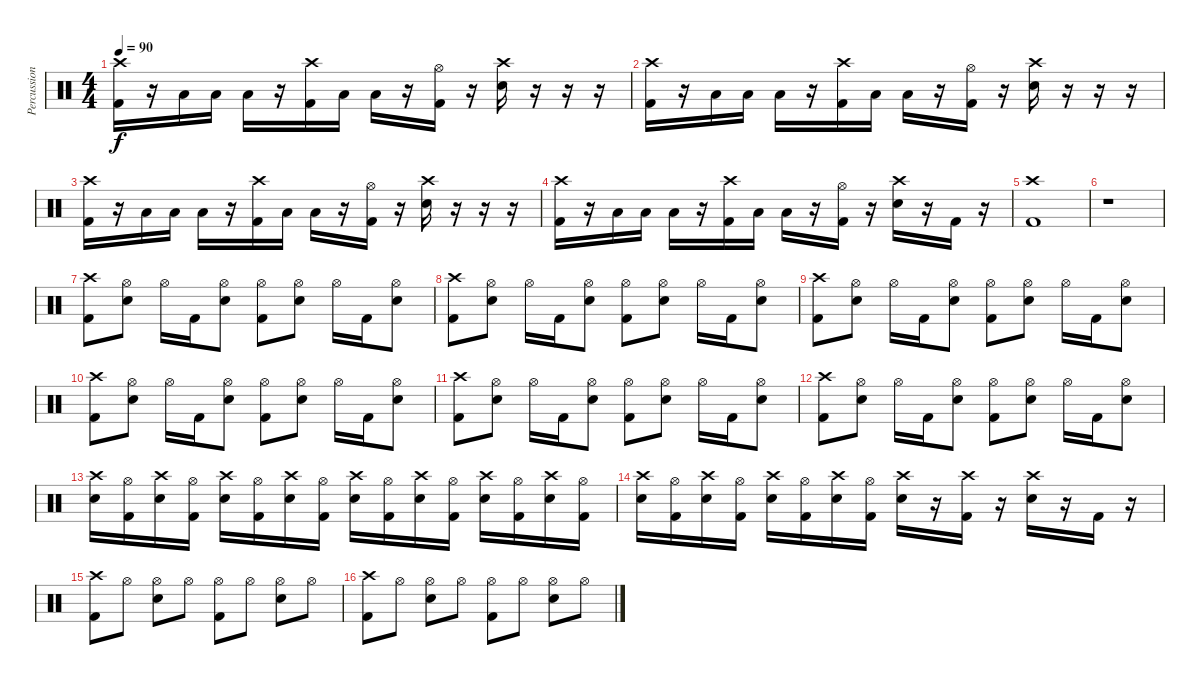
\track ("Percussion" "Percussion") {instrument percussion}
\staff {score}
\articulation defaults
\ts (4 4)
\tempo 90
\clef neutral
\ks c
("Crash high (hit)" "Kick (hit) 2").16{dy f} r.16 "Low Floor Tom (hit)".16 "Low Floor Tom (hit)".16 "Low Floor Tom (hit)".16 r.16 ("Crash high (hit)" "Kick (hit) 2").16 "Low Floor Tom (hit)".16 "Low Floor Tom (hit)".16 r.16 ("Hi-Hat (open)" "Kick (hit) 2").16 r.16 ("Crash high (hit)" "Snare (hit) 2").16 r.16 r.16 r.16 |
("Crash high (hit)" "Kick (hit) 2").16 r.16 "Low Floor Tom (hit)".16 "Low Floor Tom (hit)".16 "Low Floor Tom (hit)".16 r.16 ("Crash high (hit)" "Kick (hit) 2").16 "Low Floor Tom (hit)".16 "Low Floor Tom (hit)".16 r.16 ("Hi-Hat (open)" "Kick (hit) 2").16 r.16 ("Crash high (hit)" "Snare (hit) 2").16 r.16 r.16 r.16 |
("Crash high (hit)" "Kick (hit) 2").16 r.16 "Low Floor Tom (hit)".16 "Low Floor Tom (hit)".16 "Low Floor Tom (hit)".16 r.16 ("Crash high (hit)" "Kick (hit) 2").16 "Low Floor Tom (hit)".16 "Low Floor Tom (hit)".16 r.16 ("Hi-Hat (open)" "Kick (hit) 2").16 r.16 ("Crash high (hit)" "Snare (hit) 2").16 r.16 r.16 r.16 |
("Crash high (hit)" "Kick (hit) 2").16 r.16 "Low Floor Tom (hit)".16 "Low Floor Tom (hit)".16 "Low Floor Tom (hit)".16 r.16 ("Crash high (hit)" "Kick (hit) 2").16 "Low Floor Tom (hit)".16 "Low Floor Tom (hit)".16 r.16 ("Hi-Hat (open)" "Kick (hit) 2").16 r.16 ("Crash high (hit)" "Snare (hit) 2").16 r.16 "Kick (hit) 2".16 r.16 |
("Crash high (hit)" "Kick (hit) 2").1 |
r.1 |
("Crash high (hit)" "Kick (hit) 2").8 ("Hi-Hat (open)" "Snare (hit) 2").8 "Hi-Hat (open)".16 "Kick (hit) 2".16 ("Hi-Hat (open)" "Snare (hit) 2").8 ("Hi-Hat (open)" "Kick (hit) 2").8 ("Hi-Hat (open)" "Snare (hit) 2").8 "Hi-Hat (open)".16 "Kick (hit) 2".16 ("Hi-Hat (open)" "Snare (hit) 2").8 |
("Crash high (hit)" "Kick (hit) 2").8 ("Hi-Hat (open)" "Snare (hit) 2").8 "Hi-Hat (open)".16 "Kick (hit) 2".16 ("Hi-Hat (open)" "Snare (hit) 2").8 ("Hi-Hat (open)" "Kick (hit) 2").8 ("Hi-Hat (open)" "Snare (hit) 2").8 "Hi-Hat (open)".16 "Kick (hit) 2".16 ("Hi-Hat (open)" "Snare (hit) 2").8 |
("Crash high (hit)" "Kick (hit) 2").8 ("Hi-Hat (open)" "Snare (hit) 2").8 "Hi-Hat (open)".16 "Kick (hit) 2".16 ("Hi-Hat (open)" "Snare (hit) 2").8 ("Hi-Hat (open)" "Kick (hit) 2").8 ("Hi-Hat (open)" "Snare (hit) 2").8 "Hi-Hat (open)".16 "Kick (hit) 2".16 ("Hi-Hat (open)" "Snare (hit) 2").8 |
("Crash high (hit)" "Kick (hit) 2").8 ("Hi-Hat (open)" "Snare (hit) 2").8 "Hi-Hat (open)".16 "Kick (hit) 2".16 ("Hi-Hat (open)" "Snare (hit) 2").8 ("Hi-Hat (open)" "Kick (hit) 2").8 ("Hi-Hat (open)" "Snare (hit) 2").8 "Hi-Hat (open)".16 "Kick (hit) 2".16 ("Hi-Hat (open)" "Snare (hit) 2").8 |
("Crash high (hit)" "Kick (hit) 2").8 ("Hi-Hat (open)" "Snare (hit) 2").8 "Hi-Hat (open)".16 "Kick (hit) 2".16 ("Hi-Hat (open)" "Snare (hit) 2").8 ("Hi-Hat (open)" "Kick (hit) 2").8 ("Hi-Hat (open)" "Snare (hit) 2").8 "Hi-Hat (open)".16 "Kick (hit) 2".16 ("Hi-Hat (open)" "Snare (hit) 2").8 |
("Crash high (hit)" "Kick (hit) 2").8 ("Hi-Hat (open)" "Snare (hit) 2").8 "Hi-Hat (open)".16 "Kick (hit) 2".16 ("Hi-Hat (open)" "Snare (hit) 2").8 ("Hi-Hat (open)" "Kick (hit) 2").8 ("Hi-Hat (open)" "Snare (hit) 2").8 "Hi-Hat (open)".16 "Kick (hit) 2".16 ("Hi-Hat (open)" "Snare (hit) 2").8 |
("Crash high (hit)" "Snare (hit) 2").16 ("Hi-Hat (open)" "Kick (hit) 2").16 ("Crash high (hit)" "Snare (hit) 2").16 ("Hi-Hat (open)" "Kick (hit) 2").16 ("Crash high (hit)" "Snare (hit) 2").16 ("Hi-Hat (open)" "Kick (hit) 2").16 ("Crash high (hit)" "Snare (hit) 2").16 ("Hi-Hat (open)" "Kick (hit) 2").16 ("Crash high (hit)" "Snare (hit) 2").16 ("Hi-Hat (open)" "Kick (hit) 2").16 ("Crash high (hit)" "Snare (hit) 2").16 ("Hi-Hat (open)" "Kick (hit) 2").16 ("Crash high (hit)" "Snare (hit) 2").16 ("Hi-Hat (open)" "Kick (hit) 2").16 ("Crash high (hit)" "Snare (hit) 2").16 ("Hi-Hat (open)" "Kick (hit) 2").16 |
("Crash high (hit)" "Snare (hit) 2").16 ("Hi-Hat (open)" "Kick (hit) 2").16 ("Crash high (hit)" "Snare (hit) 2").16 ("Hi-Hat (open)" "Kick (hit) 2").16 ("Crash high (hit)" "Snare (hit) 2").16 ("Hi-Hat (open)" "Kick (hit) 2").16 ("Crash high (hit)" "Snare (hit) 2").16 ("Hi-Hat (open)" "Kick (hit) 2").16 ("Crash high (hit)" "Snare (hit) 2").16 r.16 ("Crash high (hit)" "Kick (hit) 2").16 r.16 ("Crash high (hit)" "Snare (hit) 2").16 r.16 "Kick (hit) 2".16 r.16 |
("Crash high (hit)" "Kick (hit) 2").8 "Hi-Hat (open)".8 ("Hi-Hat (open)" "Snare (hit) 2").8 "Hi-Hat (open)".8 ("Hi-Hat (open)" "Kick (hit) 2").8 "Hi-Hat (open)".8 ("Hi-Hat (open)" "Snare (hit) 2").8 "Hi-Hat (open)".8 |
("Crash high (hit)" "Kick (hit) 2").8 "Hi-Hat (open)".8 ("Hi-Hat (open)" "Snare (hit) 2").8 "Hi-Hat (open)".8 ("Hi-Hat (open)" "Kick (hit) 2").8 "Hi-Hat (open)".8 ("Hi-Hat (open)" "Snare (hit) 2").8 "Hi-Hat (open)".8
